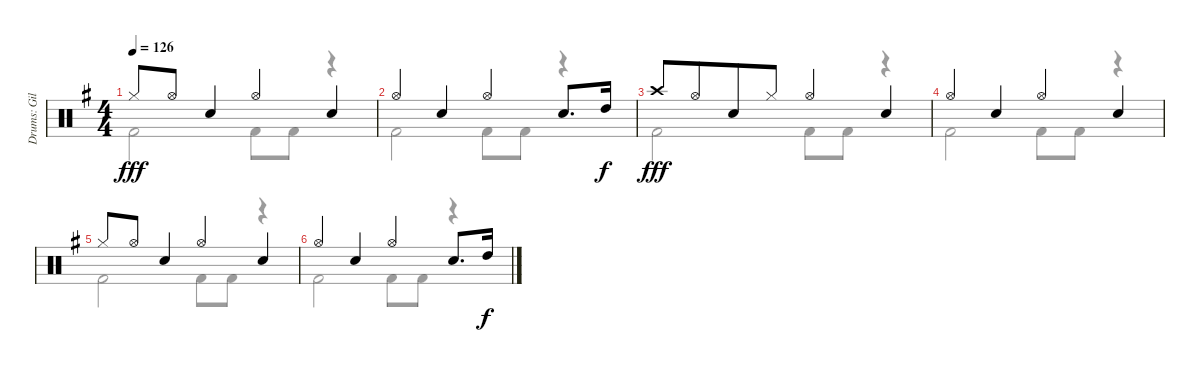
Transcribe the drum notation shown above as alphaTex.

\track ("Drums: Gil" "Drums: Gil") {instrument percussion}
\staff {score}
\articulation defaults
\voice
\ts (4 4)
\tempo 126
\clef neutral
\ks g "Hi-Hat (closed)".8{dy fff} "Hi-Hat (open)".8 "Snare (hit) 2".4 "Hi-Hat (open)".4 "Snare (hit) 2".4
|
"Hi-Hat (open)".4 "Snare (hit) 2".4 "Hi-Hat (open)".4 "Snare (hit) 2".8{d} "High Tom (hit)".16{dy f} |
"Crash high (hit)".8{dy fff volume 0} "Hi-Hat (open)".8{beam merge} "Snare (hit) 2".8 "Hi-Hat (closed)".8 "Hi-Hat (open)".4 "Snare (hit) 2".4 |
"Hi-Hat (open)".4 "Snare (hit) 2".4 "Hi-Hat (open)".4 "Snare (hit) 2".4 |
"Hi-Hat (closed)".8 "Hi-Hat (open)".8 "Snare (hit) 2".4 "Hi-Hat (open)".4 "Snare (hit) 2".4 |
"Hi-Hat (open)".4 "Snare (hit) 2".4 "Hi-Hat (open)".4 "Snare (hit) 2".8{d} "High Tom (hit)".16{dy f}
\voice
\clef neutral
\ottava regular
\simile none
\ks g "Kick (hit) 2".2{dy fff} "Kick (hit) 2".8 "Kick (hit) 2".8
r.4 |
"Kick (hit) 2".2 "Kick (hit) 2".8 "Kick (hit) 2".8 r.4 |
"Kick (hit) 2".2 "Kick (hit) 2".8 "Kick (hit) 2".8 r.4 |
"Kick (hit) 2".2 "Kick (hit) 2".8 "Kick (hit) 2".8 r.4 |
"Kick (hit) 2".2 "Kick (hit) 2".8 "Kick (hit) 2".8 r.4 |
"Kick (hit) 2".2 "Kick (hit) 2".8 "Kick (hit) 2".8 r.4
